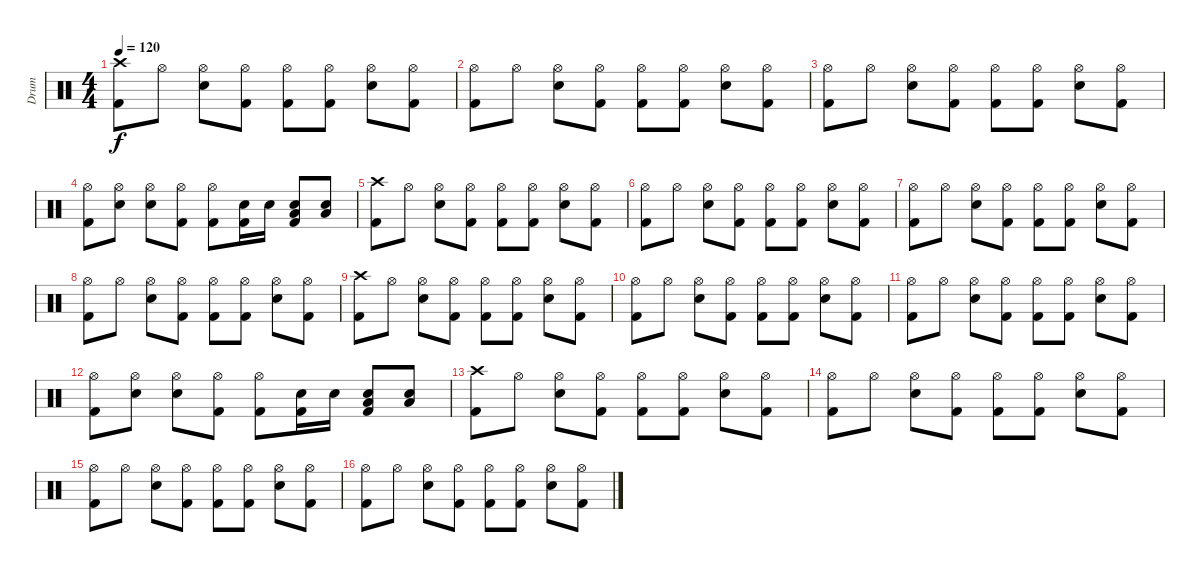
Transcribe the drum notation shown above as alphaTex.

\track ("Drum" "Drum") {instrument percussion}
\staff {score}
\articulation defaults
\ts (4 4)
\tempo 120
\clef neutral
\ks c
("Crash high (hit)" "Kick (hit) 2").8{dy f} "Hi-Hat (open)".8 ("Hi-Hat (open)" "Snare (hit) 2").8 ("Hi-Hat (open)" "Kick (hit) 2").8 ("Hi-Hat (open)" "Kick (hit) 2").8 ("Hi-Hat (open)" "Kick (hit) 2").8 ("Hi-Hat (open)" "Snare (hit) 2").8 ("Hi-Hat (open)" "Kick (hit) 2").8 |
("Hi-Hat (open)" "Kick (hit) 2").8 "Hi-Hat (open)".8 ("Hi-Hat (open)" "Snare (hit) 2").8 ("Hi-Hat (open)" "Kick (hit) 2").8 ("Hi-Hat (open)" "Kick (hit) 2").8 ("Hi-Hat (open)" "Kick (hit) 2").8 ("Hi-Hat (open)" "Snare (hit) 2").8 ("Hi-Hat (open)" "Kick (hit) 2").8 |
("Hi-Hat (open)" "Kick (hit) 2").8 "Hi-Hat (open)".8 ("Hi-Hat (open)" "Snare (hit) 2").8 ("Hi-Hat (open)" "Kick (hit) 2").8 ("Hi-Hat (open)" "Kick (hit) 2").8 ("Hi-Hat (open)" "Kick (hit) 2").8 ("Hi-Hat (open)" "Snare (hit) 2").8 ("Hi-Hat (open)" "Kick (hit) 2").8 |
("Hi-Hat (open)" "Kick (hit) 2").8 ("Hi-Hat (open)" "Snare (hit) 2").8 ("Hi-Hat (open)" "Snare (hit) 2").8 ("Hi-Hat (open)" "Kick (hit) 2").8 ("Hi-Hat (open)" "Kick (hit) 2").8 ("Snare (hit) 2" "Kick (hit) 2").16 "Snare (hit) 2".16 ("Low Tom (hit)" "Snare (hit) 2" "Kick (hit) 2").8 ("Low Floor Tom (hit)" "Snare (hit) 2").8 |
("Crash high (hit)" "Kick (hit) 2").8 "Hi-Hat (open)".8 ("Hi-Hat (open)" "Snare (hit) 2").8 ("Hi-Hat (open)" "Kick (hit) 2").8 ("Hi-Hat (open)" "Kick (hit) 2").8 ("Hi-Hat (open)" "Kick (hit) 2").8 ("Hi-Hat (open)" "Snare (hit) 2").8 ("Hi-Hat (open)" "Kick (hit) 2").8 |
("Hi-Hat (open)" "Kick (hit) 2").8 "Hi-Hat (open)".8 ("Hi-Hat (open)" "Snare (hit) 2").8 ("Hi-Hat (open)" "Kick (hit) 2").8 ("Hi-Hat (open)" "Kick (hit) 2").8 ("Hi-Hat (open)" "Kick (hit) 2").8 ("Hi-Hat (open)" "Snare (hit) 2").8 ("Hi-Hat (open)" "Kick (hit) 2").8 |
("Hi-Hat (open)" "Kick (hit) 2").8 "Hi-Hat (open)".8 ("Hi-Hat (open)" "Snare (hit) 2").8 ("Hi-Hat (open)" "Kick (hit) 2").8 ("Hi-Hat (open)" "Kick (hit) 2").8 ("Hi-Hat (open)" "Kick (hit) 2").8 ("Hi-Hat (open)" "Snare (hit) 2").8 ("Hi-Hat (open)" "Kick (hit) 2").8 |
("Hi-Hat (open)" "Kick (hit) 2").8 "Hi-Hat (open)".8 ("Hi-Hat (open)" "Snare (hit) 2").8 ("Hi-Hat (open)" "Kick (hit) 2").8 ("Hi-Hat (open)" "Kick (hit) 2").8 ("Hi-Hat (open)" "Kick (hit) 2").8 ("Hi-Hat (open)" "Snare (hit) 2").8 ("Hi-Hat (open)" "Kick (hit) 2").8 |
("Crash high (hit)" "Kick (hit) 2").8 "Hi-Hat (open)".8 ("Hi-Hat (open)" "Snare (hit) 2").8 ("Hi-Hat (open)" "Kick (hit) 2").8 ("Hi-Hat (open)" "Kick (hit) 2").8 ("Hi-Hat (open)" "Kick (hit) 2").8 ("Hi-Hat (open)" "Snare (hit) 2").8 ("Hi-Hat (open)" "Kick (hit) 2").8 |
("Hi-Hat (open)" "Kick (hit) 2").8 "Hi-Hat (open)".8 ("Hi-Hat (open)" "Snare (hit) 2").8 ("Hi-Hat (open)" "Kick (hit) 2").8 ("Hi-Hat (open)" "Kick (hit) 2").8 ("Hi-Hat (open)" "Kick (hit) 2").8 ("Hi-Hat (open)" "Snare (hit) 2").8 ("Hi-Hat (open)" "Kick (hit) 2").8 |
("Hi-Hat (open)" "Kick (hit) 2").8 "Hi-Hat (open)".8 ("Hi-Hat (open)" "Snare (hit) 2").8 ("Hi-Hat (open)" "Kick (hit) 2").8 ("Hi-Hat (open)" "Kick (hit) 2").8 ("Hi-Hat (open)" "Kick (hit) 2").8 ("Hi-Hat (open)" "Snare (hit) 2").8 ("Hi-Hat (open)" "Kick (hit) 2").8 |
("Hi-Hat (open)" "Kick (hit) 2").8 ("Hi-Hat (open)" "Snare (hit) 2").8 ("Hi-Hat (open)" "Snare (hit) 2").8 ("Hi-Hat (open)" "Kick (hit) 2").8 ("Hi-Hat (open)" "Kick (hit) 2").8 ("Snare (hit) 2" "Kick (hit) 2").16 "Snare (hit) 2".16 ("Low Tom (hit)" "Snare (hit) 2" "Kick (hit) 2").8 ("Low Floor Tom (hit)" "Snare (hit) 2").8 |
("Crash high (hit)" "Kick (hit) 2").8 "Hi-Hat (open)".8 ("Hi-Hat (open)" "Snare (hit) 2").8 ("Hi-Hat (open)" "Kick (hit) 2").8 ("Hi-Hat (open)" "Kick (hit) 2").8 ("Hi-Hat (open)" "Kick (hit) 2").8 ("Hi-Hat (open)" "Snare (hit) 2").8 ("Hi-Hat (open)" "Kick (hit) 2").8 |
("Hi-Hat (open)" "Kick (hit) 2").8 "Hi-Hat (open)".8 ("Hi-Hat (open)" "Snare (hit) 2").8 ("Hi-Hat (open)" "Kick (hit) 2").8 ("Hi-Hat (open)" "Kick (hit) 2").8 ("Hi-Hat (open)" "Kick (hit) 2").8 ("Hi-Hat (open)" "Snare (hit) 2").8 ("Hi-Hat (open)" "Kick (hit) 2").8 |
("Hi-Hat (open)" "Kick (hit) 2").8 "Hi-Hat (open)".8 ("Hi-Hat (open)" "Snare (hit) 2").8 ("Hi-Hat (open)" "Kick (hit) 2").8 ("Hi-Hat (open)" "Kick (hit) 2").8 ("Hi-Hat (open)" "Kick (hit) 2").8 ("Hi-Hat (open)" "Snare (hit) 2").8 ("Hi-Hat (open)" "Kick (hit) 2").8 |
("Hi-Hat (open)" "Kick (hit) 2").8 "Hi-Hat (open)".8 ("Hi-Hat (open)" "Snare (hit) 2").8 ("Hi-Hat (open)" "Kick (hit) 2").8 ("Hi-Hat (open)" "Kick (hit) 2").8 ("Hi-Hat (open)" "Kick (hit) 2").8 ("Hi-Hat (open)" "Snare (hit) 2").8 ("Hi-Hat (open)" "Kick (hit) 2").8
